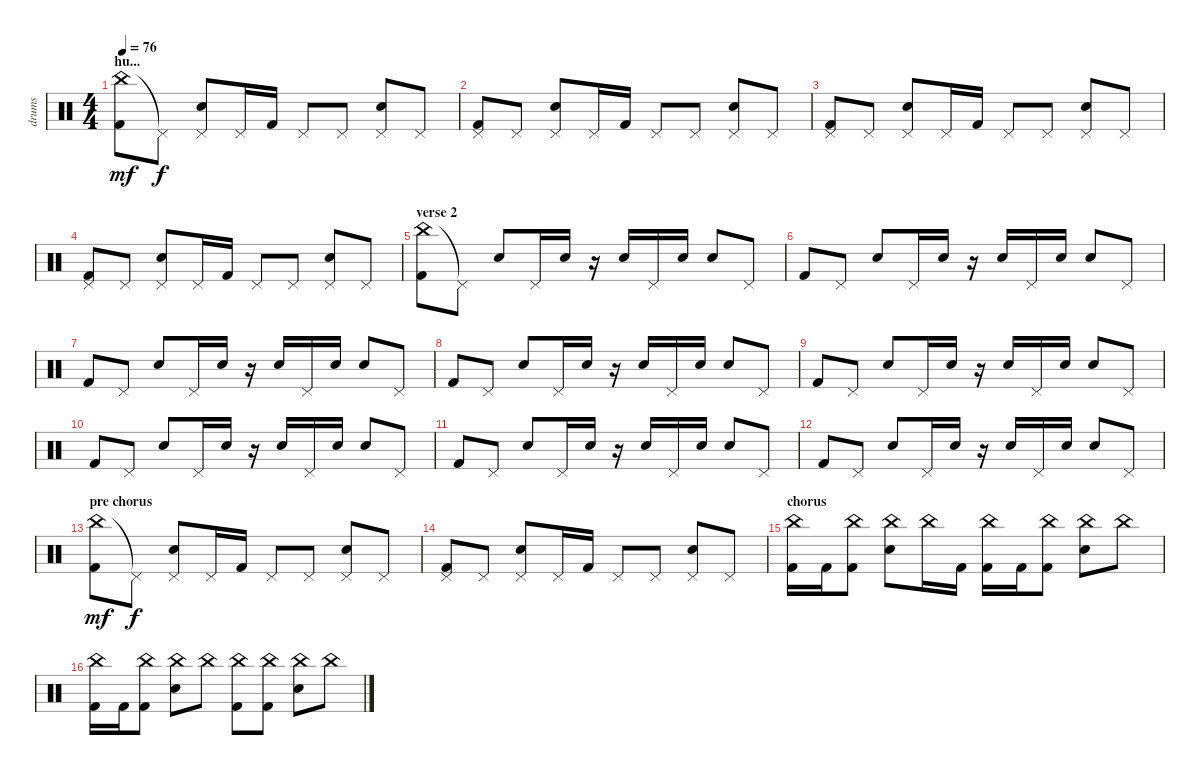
\track ("drums" "drums") {instrument percussion}
\staff {score}
\articulation defaults
\ts (4 4)
\section ("" "hu...")
\tempo 76
\clef neutral
\ks c
("China (hit)" "Kick (hit) 2").8{dy mf} "Pedal Hi-Hat (hit)"{t}.8{dy f} ("Pedal Hi-Hat (hit)" "Snare (hit) 2").8 "Pedal Hi-Hat (hit)".16 "Kick (hit) 2".16 "Pedal Hi-Hat (hit)".8 "Pedal Hi-Hat (hit)".8 ("Pedal Hi-Hat (hit)" "Snare (hit) 2").8 "Pedal Hi-Hat (hit)".8 |
("Pedal Hi-Hat (hit)" "Kick (hit) 2").8 "Pedal Hi-Hat (hit)".8 ("Pedal Hi-Hat (hit)" "Snare (hit) 2").8 "Pedal Hi-Hat (hit)".16 "Kick (hit) 2".16 "Pedal Hi-Hat (hit)".8 "Pedal Hi-Hat (hit)".8 ("Pedal Hi-Hat (hit)" "Snare (hit) 2").8 "Pedal Hi-Hat (hit)".8 |
("Pedal Hi-Hat (hit)" "Kick (hit) 2").8 "Pedal Hi-Hat (hit)".8 ("Pedal Hi-Hat (hit)" "Snare (hit) 2").8 "Pedal Hi-Hat (hit)".16 "Kick (hit) 2".16 "Pedal Hi-Hat (hit)".8 "Pedal Hi-Hat (hit)".8 ("Pedal Hi-Hat (hit)" "Snare (hit) 2").8 "Pedal Hi-Hat (hit)".8 |
("Pedal Hi-Hat (hit)" "Kick (hit) 2").8 "Pedal Hi-Hat (hit)".8 ("Pedal Hi-Hat (hit)" "Snare (hit) 2").8 "Pedal Hi-Hat (hit)".16 "Kick (hit) 2".16 "Pedal Hi-Hat (hit)".8 "Pedal Hi-Hat (hit)".8 ("Pedal Hi-Hat (hit)" "Snare (hit) 2").8 "Pedal Hi-Hat (hit)".8 |
\section ("" "verse 2")
("China (hit)" "Kick (hit) 2").8 "Pedal Hi-Hat (hit)"{t}.8 "Snare (hit) 2".8 "Pedal Hi-Hat (hit)".16 "Snare (hit) 2".16 r.16 "Snare (hit) 2".16 "Pedal Hi-Hat (hit)".16 "Snare (hit) 2".16 "Snare (hit) 2".8 "Pedal Hi-Hat (hit)".8 |
"Kick (hit) 2".8 "Pedal Hi-Hat (hit)".8 "Snare (hit) 2".8 "Pedal Hi-Hat (hit)".16 "Snare (hit) 2".16 r.16 "Snare (hit) 2".16 "Pedal Hi-Hat (hit)".16 "Snare (hit) 2".16 "Snare (hit) 2".8 "Pedal Hi-Hat (hit)".8 |
"Kick (hit) 2".8 "Pedal Hi-Hat (hit)".8 "Snare (hit) 2".8 "Pedal Hi-Hat (hit)".16 "Snare (hit) 2".16 r.16 "Snare (hit) 2".16 "Pedal Hi-Hat (hit)".16 "Snare (hit) 2".16 "Snare (hit) 2".8 "Pedal Hi-Hat (hit)".8 |
"Kick (hit) 2".8 "Pedal Hi-Hat (hit)".8 "Snare (hit) 2".8 "Pedal Hi-Hat (hit)".16 "Snare (hit) 2".16 r.16 "Snare (hit) 2".16 "Pedal Hi-Hat (hit)".16 "Snare (hit) 2".16 "Snare (hit) 2".8 "Pedal Hi-Hat (hit)".8 |
"Kick (hit) 2".8 "Pedal Hi-Hat (hit)".8 "Snare (hit) 2".8 "Pedal Hi-Hat (hit)".16 "Snare (hit) 2".16 r.16 "Snare (hit) 2".16 "Pedal Hi-Hat (hit)".16 "Snare (hit) 2".16 "Snare (hit) 2".8 "Pedal Hi-Hat (hit)".8 |
"Kick (hit) 2".8 "Pedal Hi-Hat (hit)".8 "Snare (hit) 2".8 "Pedal Hi-Hat (hit)".16 "Snare (hit) 2".16 r.16 "Snare (hit) 2".16 "Pedal Hi-Hat (hit)".16 "Snare (hit) 2".16 "Snare (hit) 2".8 "Pedal Hi-Hat (hit)".8 |
"Kick (hit) 2".8 "Pedal Hi-Hat (hit)".8 "Snare (hit) 2".8 "Pedal Hi-Hat (hit)".16 "Snare (hit) 2".16 r.16 "Snare (hit) 2".16 "Pedal Hi-Hat (hit)".16 "Snare (hit) 2".16 "Snare (hit) 2".8 "Pedal Hi-Hat (hit)".8 |
"Kick (hit) 2".8 "Pedal Hi-Hat (hit)".8 "Snare (hit) 2".8 "Pedal Hi-Hat (hit)".16 "Snare (hit) 2".16 r.16 "Snare (hit) 2".16 "Pedal Hi-Hat (hit)".16 "Snare (hit) 2".16 "Snare (hit) 2".8 "Pedal Hi-Hat (hit)".8 |
\section ("" "pre chorus")
("China (hit)" "Kick (hit) 2").8{dy mf} "Pedal Hi-Hat (hit)"{t}.8{dy f} ("Pedal Hi-Hat (hit)" "Snare (hit) 2").8 "Pedal Hi-Hat (hit)".16 "Kick (hit) 2".16 "Pedal Hi-Hat (hit)".8 "Pedal Hi-Hat (hit)".8 ("Pedal Hi-Hat (hit)" "Snare (hit) 2").8 "Pedal Hi-Hat (hit)".8 |
("Pedal Hi-Hat (hit)" "Kick (hit) 2").8 "Pedal Hi-Hat (hit)".8 ("Pedal Hi-Hat (hit)" "Snare (hit) 2").8 "Pedal Hi-Hat (hit)".16 "Kick (hit) 2".16 "Pedal Hi-Hat (hit)".8 "Pedal Hi-Hat (hit)".8 ("Pedal Hi-Hat (hit)" "Snare (hit) 2").8 "Pedal Hi-Hat (hit)".8 |
\section ("" "chorus")
("China (hit)" "Kick (hit) 2").16 "Kick (hit) 2".16 ("China (hit)" "Kick (hit) 2").8 ("China (hit)" "Snare (hit) 2").8 "China (hit)".16 "Kick (hit) 2".16 ("China (hit)" "Kick (hit) 2").16 "Kick (hit) 2".16 ("China (hit)" "Kick (hit) 2").8 ("China (hit)" "Snare (hit) 2").8 "China (hit)".8 |
("China (hit)" "Kick (hit) 2").16 "Kick (hit) 2".16 ("China (hit)" "Kick (hit) 2").8 ("China (hit)" "Snare (hit) 2").8 "China (hit)".8 ("China (hit)" "Kick (hit) 2").8 ("China (hit)" "Kick (hit) 2").8 ("China (hit)" "Snare (hit) 2").8 "China (hit)".8
